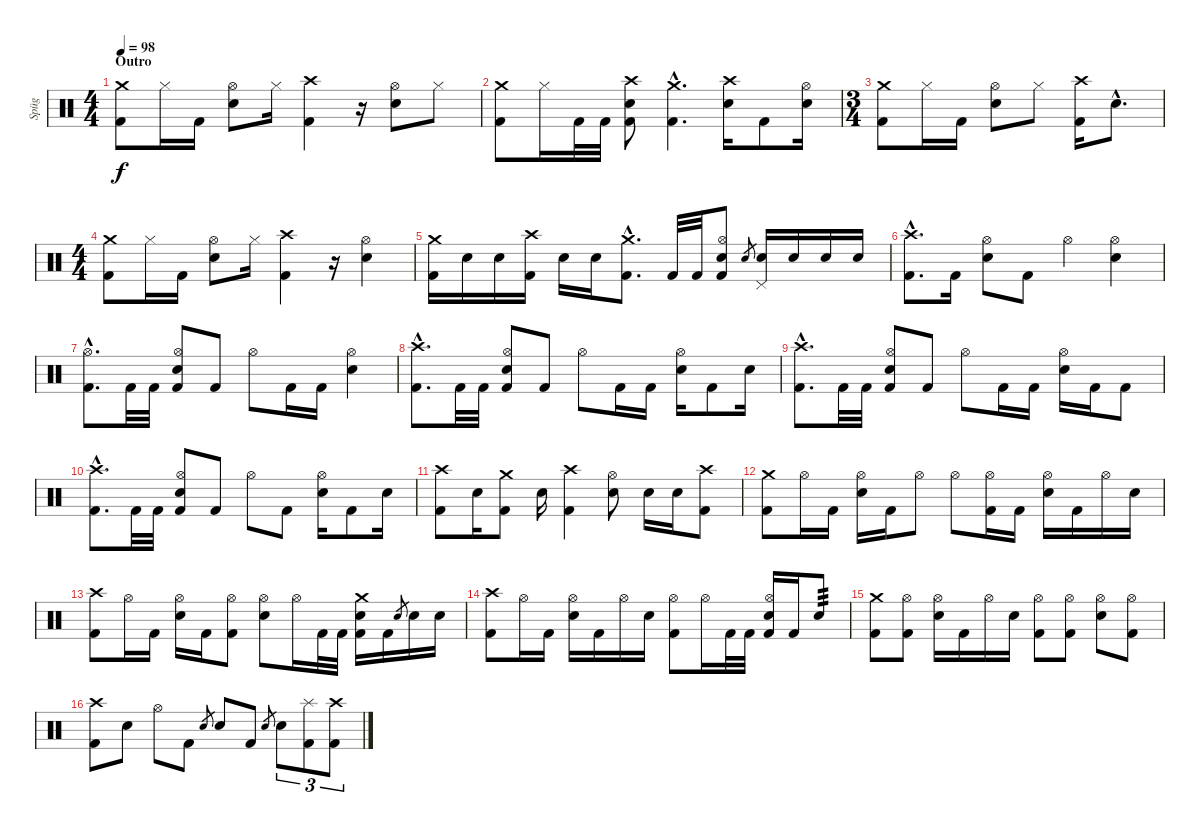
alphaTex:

\track ("Spüg" "Spüg") {instrument percussion}
\staff {score}
\articulation defaults
\ts (4 4)
\section ("" "Outro")
\tempo 98
\clef neutral
\ks c
("Crash medium (hit)" "Kick (hit) 2").8{dy f} "Hi-Hat (closed)".16 "Kick (hit) 2".16 ("Hi-Hat (open)" "Electric Snare (hit)").8 "Hi-Hat (closed)".16 ("Crash high (hit)" "Kick (hit) 2").4 r.16 ("Hi-Hat (open)" "Electric Snare (hit)").8 "Hi-Hat (closed)".8 |
("Crash medium (hit)" "Kick (hit) 2").8 "Hi-Hat (closed)".16 "Kick (hit) 2".32 "Kick (hit) 2".32 ("Crash high (hit)" "Electric Snare (hit)" "Kick (hit) 2").8 ("Crash medium (hit)"{hac} "Kick (hit) 2"{hac}).4{d} ("Crash high (hit)" "Electric Snare (hit)").16 "Kick (hit) 2".8 ("Hi-Hat (open)" "Electric Snare (hit)").16 |
\ts (3 4)
("Crash medium (hit)" "Kick (hit) 2").8 "Hi-Hat (closed)".16 "Kick (hit) 2".16 ("Hi-Hat (open)" "Electric Snare (hit)").8 "Hi-Hat (closed)".8 ("Crash high (hit)" "Kick (hit) 2").16 "Electric Snare (hit)"{hac}.8{d} |
\ts (4 4)
("Crash medium (hit)" "Kick (hit) 2").8 "Hi-Hat (closed)".16 "Kick (hit) 2".16 ("Hi-Hat (open)" "Electric Snare (hit)").8 "Hi-Hat (closed)".16 ("Crash high (hit)" "Kick (hit) 2").4 r.16 ("Hi-Hat (open)" "Electric Snare (hit)").4 |
("Crash medium (hit)" "Kick (hit) 2").16 "Electric Snare (hit)".16 "Electric Snare (hit)".16 ("Crash high (hit)" "Kick (hit) 2").16 "Electric Snare (hit)".16 "Electric Snare (hit)".16 ("Crash medium (hit)"{hac} "Kick (hit) 2"{hac}).8{d} "Kick (hit) 2".32 "Kick (hit) 2".32 ("Hi-Hat (open)" "Electric Snare (hit)" "Kick (hit) 2").8 "Electric Snare (hit)".8{gr} ("Pedal Hi-Hat (hit)" "Electric Snare (hit)").16 "Electric Snare (hit)".16 "Electric Snare (hit)".16 "Electric Snare (hit)".16 |
("Crash high (hit)"{hac} "Kick (hit) 2"{hac}).8{d} "Kick (hit) 2".16 ("Hi-Hat (open)" "Electric Snare (hit)").8 "Kick (hit) 2".8 "Hi-Hat (open)".4 ("Hi-Hat (open)" "Electric Snare (hit)").4 |
("Hi-Hat (open)"{hac} "Kick (hit) 2"{hac}).8{d} "Kick (hit) 2".32 "Kick (hit) 2".32 ("Hi-Hat (open)" "Electric Snare (hit)" "Kick (hit) 2").8 "Kick (hit) 2".8 "Hi-Hat (open)".8 "Kick (hit) 2".16 "Kick (hit) 2".16 ("Hi-Hat (open)" "Electric Snare (hit)").4 |
("Crash high (hit)"{hac} "Kick (hit) 2"{hac}).8{d} "Kick (hit) 2".32 "Kick (hit) 2".32 ("Hi-Hat (open)" "Electric Snare (hit)" "Kick (hit) 2").8 "Kick (hit) 2".8 "Hi-Hat (open)".8 "Kick (hit) 2".16 "Kick (hit) 2".16 ("Hi-Hat (open)" "Electric Snare (hit)").16 "Kick (hit) 2".8 "Electric Snare (hit)".16 |
("Crash high (hit)"{hac} "Kick (hit) 2"{hac}).8{d} "Kick (hit) 2".32 "Kick (hit) 2".32 ("Hi-Hat (open)" "Electric Snare (hit)" "Kick (hit) 2").8 "Kick (hit) 2".8 "Hi-Hat (open)".8 "Kick (hit) 2".16 "Kick (hit) 2".16 ("Hi-Hat (open)" "Electric Snare (hit)").16 "Kick (hit) 2".16 "Kick (hit) 2".8 |
("Crash high (hit)"{hac} "Kick (hit) 2"{hac}).8{d} "Kick (hit) 2".32 "Kick (hit) 2".32 ("Hi-Hat (open)" "Electric Snare (hit)" "Kick (hit) 2").8 "Kick (hit) 2".8 "Hi-Hat (open)".8 "Kick (hit) 2".8 ("Hi-Hat (open)" "Electric Snare (hit)").16 "Kick (hit) 2".8 "Electric Snare (hit)".16 |
("Crash high (hit)" "Kick (hit) 2").8 "Electric Snare (hit)".16 ("Crash medium (hit)" "Kick (hit) 2").8 "Electric Snare (hit)".16 ("Crash high (hit)" "Kick (hit) 2").4 ("Hi-Hat (open)" "Electric Snare (hit)").8 "Electric Snare (hit)".16 "Electric Snare (hit)".16 ("Crash high (hit)" "Kick (hit) 2").8 |
("Crash medium (hit)" "Kick (hit) 2").8 "Hi-Hat (open)".16 "Kick (hit) 2".16 ("Hi-Hat (open)" "Electric Snare (hit)").16 "Kick (hit) 2".16 "Hi-Hat (open)".8 "Hi-Hat (open)".8 ("Hi-Hat (open)" "Kick (hit) 2").16 "Kick (hit) 2".16 ("Hi-Hat (open)" "Electric Snare (hit)").16 "Kick (hit) 2".16 "Hi-Hat (open)".16 "Electric Snare (hit)".16 |
("Crash high (hit)" "Kick (hit) 2").8 "Hi-Hat (open)".16 "Kick (hit) 2".16 ("Hi-Hat (open)" "Electric Snare (hit)").16 "Kick (hit) 2".16 ("Hi-Hat (open)" "Kick (hit) 2").8 ("Hi-Hat (open)" "Electric Snare (hit)").8 "Hi-Hat (open)".16 "Kick (hit) 2".32 "Kick (hit) 2".32 ("Crash medium (hit)" "Electric Snare (hit)" "Kick (hit) 2").16 "Kick (hit) 2".16 "Electric Snare (hit)".8{gr} "Electric Snare (hit)".16 "Electric Snare (hit)".16 |
("Crash high (hit)" "Kick (hit) 2").8{volume 0} "Hi-Hat (open)".16 "Kick (hit) 2".16 ("Hi-Hat (open)" "Electric Snare (hit)").16 "Kick (hit) 2".16 "Hi-Hat (open)".16 "Electric Snare (hit)".16 ("Hi-Hat (open)" "Kick (hit) 2").8 "Hi-Hat (open)".16 "Kick (hit) 2".32 "Kick (hit) 2".32 ("Hi-Hat (open)" "Electric Snare (hit)" "Kick (hit) 2").16 "Kick (hit) 2".16 "Electric Snare (hit)".8{tp 3} |
("Crash medium (hit)" "Kick (hit) 2").8 ("Hi-Hat (open)" "Kick (hit) 2").8 ("Hi-Hat (open)" "Electric Snare (hit)").16 "Kick (hit) 2".16 "Hi-Hat (open)".16 "Electric Snare (hit)".16 ("Hi-Hat (open)" "Kick (hit) 2").8 ("Hi-Hat (open)" "Kick (hit) 2").8 ("Hi-Hat (open)" "Electric Snare (hit)").8 ("Hi-Hat (open)" "Kick (hit) 2").8 |
("Crash high (hit)" "Kick (hit) 2").8 "Electric Snare (hit)".8 "Hi-Hat (open)".8 "Kick (hit) 2".8 "Electric Snare (hit)".8{gr} "Electric Snare (hit)".8 "Kick (hit) 2".8 "Electric Snare (hit)".8{gr} "Electric Snare (hit)".8{tu (3 2)} ("Splash (hit)" "Kick (hit) 2").8{tu (3 2)} ("Crash high (hit)" "Kick (hit) 2").8{tu (3 2)}
